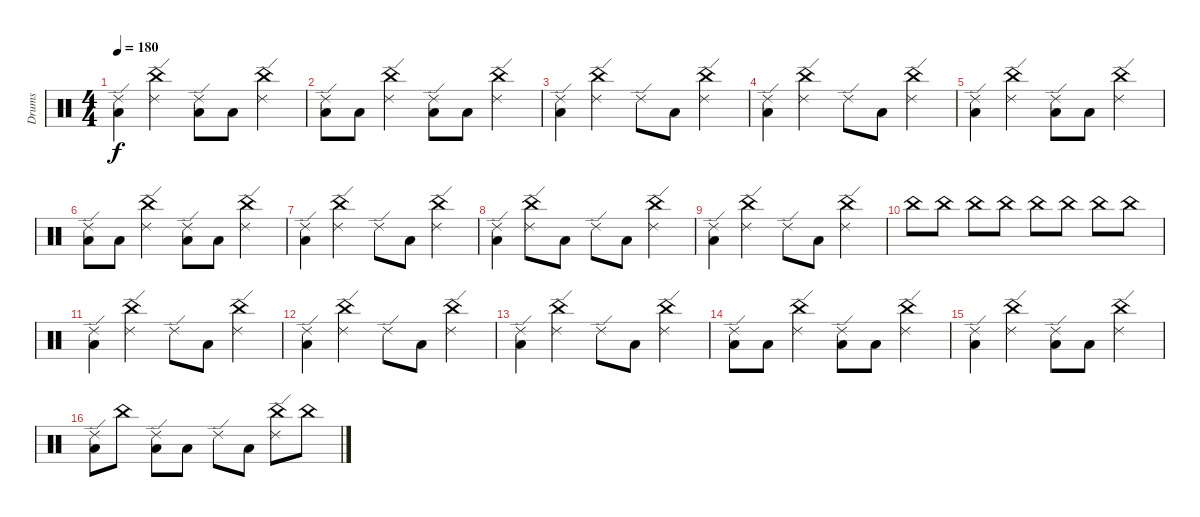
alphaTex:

\track ("Drums" "Drums") {instrument percussion}
\staff {score}
\articulation defaults
\ts (4 4)
\tempo 180
\clef neutral
\ks c
("Low Tom (hit)" "Ride (edge) 2").4{dy f} ("China (hit)" "Ride (edge) 2").4 ("Low Tom (hit)" "Ride (edge) 2").8 "Low Tom (hit)".8 ("China (hit)" "Ride (edge) 2").4 |
("Low Tom (hit)" "Ride (edge) 2").8 "Low Tom (hit)".8 ("China (hit)" "Ride (edge) 2").4 ("Low Tom (hit)" "Ride (edge) 2").8 "Low Tom (hit)".8 ("China (hit)" "Ride (edge) 2").4 |
("Low Tom (hit)" "Ride (edge) 2").4 ("China (hit)" "Ride (edge) 2").4 "Ride (edge) 2".8 "Low Tom (hit)".8 ("China (hit)" "Ride (edge) 2").4 |
("Ride (edge) 2" "Low Tom (hit)").4 ("Ride (edge) 2" "China (hit)").4 "Ride (edge) 2".8 "Low Tom (hit)".8 ("Ride (edge) 2" "China (hit)").4 |
("Low Tom (hit)" "Ride (edge) 2").4 ("Ride (edge) 2" "China (hit)").4 ("Ride (edge) 2" "Low Tom (hit)").8 "Low Tom (hit)".8 ("Ride (edge) 2" "China (hit)").4 |
("Low Tom (hit)" "Ride (edge) 2").8 "Low Tom (hit)".8 ("China (hit)" "Ride (edge) 2").4 ("Low Tom (hit)" "Ride (edge) 2").8 "Low Tom (hit)".8 ("China (hit)" "Ride (edge) 2").4 |
("Low Tom (hit)" "Ride (edge) 2").4 ("China (hit)" "Ride (edge) 2").4 "Ride (edge) 2".8 "Low Tom (hit)".8 ("China (hit)" "Ride (edge) 2").4 |
("Low Tom (hit)" "Ride (edge) 2").4 ("China (hit)" "Ride (edge) 2").8 "Low Tom (hit)".8 "Ride (edge) 2".8 "Low Tom (hit)".8 ("China (hit)" "Ride (edge) 2").4 |
("Low Tom (hit)" "Ride (edge) 2").4 ("China (hit)" "Ride (edge) 2").4 "Ride (edge) 2".8 "Low Tom (hit)".8 ("China (hit)" "Ride (edge) 2").4 |
"China (hit)".8 "China (hit)".8 "China (hit)".8 "China (hit)".8 "China (hit)".8 "China (hit)".8 "China (hit)".8 "China (hit)".8 |
("Low Tom (hit)" "Ride (edge) 2").4 ("China (hit)" "Ride (edge) 2").4 "Ride (edge) 2".8 "Low Tom (hit)".8 ("China (hit)" "Ride (edge) 2").4 |
("Low Tom (hit)" "Ride (edge) 2").4 ("China (hit)" "Ride (edge) 2").4 "Ride (edge) 2".8 "Low Tom (hit)".8 ("China (hit)" "Ride (edge) 2").4 |
("Low Tom (hit)" "Ride (edge) 2").4 ("China (hit)" "Ride (edge) 2").4 "Ride (edge) 2".8 "Low Tom (hit)".8 ("China (hit)" "Ride (edge) 2").4 |
("Low Tom (hit)" "Ride (edge) 2").8 "Low Tom (hit)".8 ("China (hit)" "Ride (edge) 2").4 ("Low Tom (hit)" "Ride (edge) 2").8 "Low Tom (hit)".8 ("China (hit)" "Ride (edge) 2").4 |
("Ride (edge) 2" "Low Tom (hit)").4 ("Ride (edge) 2" "China (hit)").4 ("Ride (edge) 2" "Low Tom (hit)").8 "Low Tom (hit)".8 ("Ride (edge) 2" "China (hit)").4 |
("Low Tom (hit)" "Ride (edge) 2").8 "China (hit)".8 ("Ride (edge) 2" "Low Tom (hit)").8 "Low Tom (hit)".8 "Ride (edge) 2".8 "Low Tom (hit)".8 ("Ride (edge) 2" "China (hit)").8 "China (hit)".8
